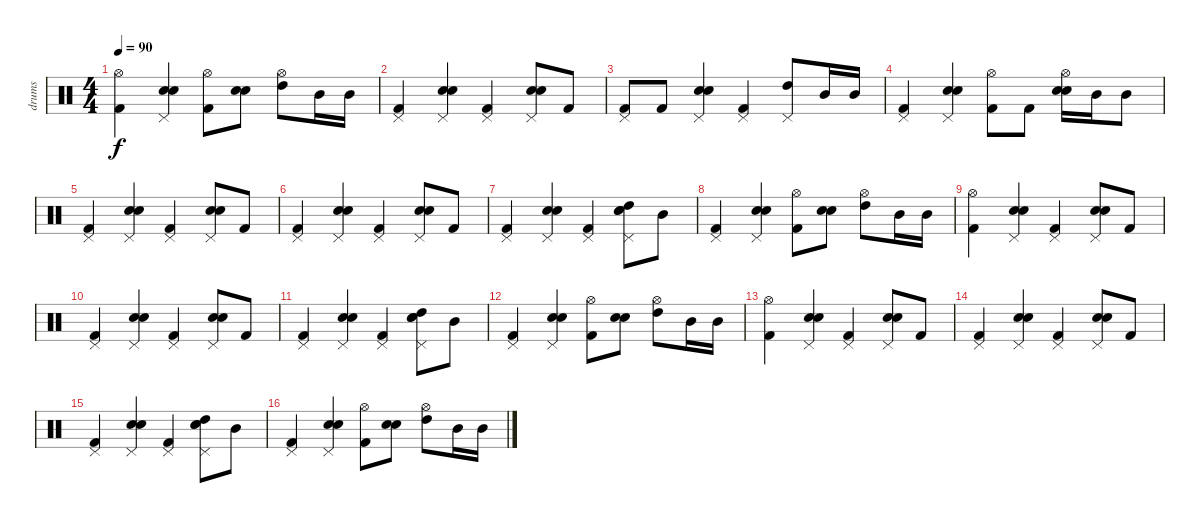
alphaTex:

\track ("drums" "drums") {instrument percussion}
\staff {score}
\articulation defaults
\ts (4 4)
\tempo 90
\clef neutral
\ks c
("Hi-Hat (open)" "Kick (hit) 2").4{dy f} ("Snare (hit) 2" "Electric Snare (hit)" "Pedal Hi-Hat (hit)").4 ("Hi-Hat (open)" "Kick (hit) 2").8 ("Snare (hit) 2" "Electric Snare (hit)").8 ("Hi-Hat (open)" "High Tom (hit)").8 "Mid Tom (hit)".16 "Mid Tom (hit)".16 |
("Kick (hit) 2" "Pedal Hi-Hat (hit)").4 ("Snare (hit) 2" "Electric Snare (hit)" "Pedal Hi-Hat (hit)").4 ("Kick (hit) 2" "Pedal Hi-Hat (hit)").4 ("Snare (hit) 2" "Electric Snare (hit)" "Pedal Hi-Hat (hit)").8 "Kick (hit) 2".8 |
("Kick (hit) 2" "Pedal Hi-Hat (hit)").8 "Kick (hit) 2".8 ("Snare (hit) 2" "Electric Snare (hit)" "Pedal Hi-Hat (hit)").4 ("Kick (hit) 2" "Pedal Hi-Hat (hit)").4 ("High Tom (hit)" "Pedal Hi-Hat (hit)").8 "Mid Tom (hit)".16 "Mid Tom (hit)".16 |
("Kick (hit) 2" "Pedal Hi-Hat (hit)").4 ("Snare (hit) 2" "Electric Snare (hit)" "Pedal Hi-Hat (hit)").4 ("Hi-Hat (open)" "Kick (hit) 2").8 "Kick (hit) 2".8 ("Hi-Hat (open)" "Snare (hit) 2" "Electric Snare (hit)").16 "Mid Tom (hit)".16 "Mid Tom (hit)".8 |
("Kick (hit) 2" "Pedal Hi-Hat (hit)").4 ("Snare (hit) 2" "Electric Snare (hit)" "Pedal Hi-Hat (hit)").4 ("Kick (hit) 2" "Pedal Hi-Hat (hit)").4 ("Snare (hit) 2" "Electric Snare (hit)" "Pedal Hi-Hat (hit)").8 "Kick (hit) 2".8 |
("Kick (hit) 2" "Pedal Hi-Hat (hit)").4 ("Snare (hit) 2" "Electric Snare (hit)" "Pedal Hi-Hat (hit)").4 ("Kick (hit) 2" "Pedal Hi-Hat (hit)").4 ("Snare (hit) 2" "Electric Snare (hit)" "Pedal Hi-Hat (hit)").8 "Kick (hit) 2".8 |
("Kick (hit) 2" "Pedal Hi-Hat (hit)").4 ("Snare (hit) 2" "Electric Snare (hit)" "Pedal Hi-Hat (hit)").4 ("Kick (hit) 2" "Pedal Hi-Hat (hit)").4 ("Snare (hit) 2" "Electric Snare (hit)" "High Tom (hit)" "Pedal Hi-Hat (hit)").8 "Mid Tom (hit)".8 |
("Kick (hit) 2" "Pedal Hi-Hat (hit)").4 ("Snare (hit) 2" "Electric Snare (hit)" "Pedal Hi-Hat (hit)").4 ("Hi-Hat (open)" "Kick (hit) 2").8 ("Snare (hit) 2" "Electric Snare (hit)").8 ("Hi-Hat (open)" "High Tom (hit)").8 "Mid Tom (hit)".16 "Mid Tom (hit)".16 |
("Hi-Hat (open)" "Kick (hit) 2").4 ("Snare (hit) 2" "Electric Snare (hit)" "Pedal Hi-Hat (hit)").4 ("Kick (hit) 2" "Pedal Hi-Hat (hit)").4 ("Snare (hit) 2" "Electric Snare (hit)" "Pedal Hi-Hat (hit)").8 "Kick (hit) 2".8 |
("Kick (hit) 2" "Pedal Hi-Hat (hit)").4 ("Snare (hit) 2" "Electric Snare (hit)" "Pedal Hi-Hat (hit)").4 ("Kick (hit) 2" "Pedal Hi-Hat (hit)").4 ("Snare (hit) 2" "Electric Snare (hit)" "Pedal Hi-Hat (hit)").8 "Kick (hit) 2".8 |
("Kick (hit) 2" "Pedal Hi-Hat (hit)").4 ("Snare (hit) 2" "Electric Snare (hit)" "Pedal Hi-Hat (hit)").4 ("Kick (hit) 2" "Pedal Hi-Hat (hit)").4 ("Snare (hit) 2" "Electric Snare (hit)" "High Tom (hit)" "Pedal Hi-Hat (hit)").8 "Mid Tom (hit)".8 |
("Kick (hit) 2" "Pedal Hi-Hat (hit)").4 ("Snare (hit) 2" "Electric Snare (hit)" "Pedal Hi-Hat (hit)").4 ("Hi-Hat (open)" "Kick (hit) 2").8 ("Snare (hit) 2" "Electric Snare (hit)").8 ("Hi-Hat (open)" "High Tom (hit)").8 "Mid Tom (hit)".16 "Mid Tom (hit)".16 |
("Hi-Hat (open)" "Kick (hit) 2").4 ("Snare (hit) 2" "Electric Snare (hit)" "Pedal Hi-Hat (hit)").4 ("Kick (hit) 2" "Pedal Hi-Hat (hit)").4 ("Snare (hit) 2" "Electric Snare (hit)" "Pedal Hi-Hat (hit)").8 "Kick (hit) 2".8 |
("Kick (hit) 2" "Pedal Hi-Hat (hit)").4 ("Snare (hit) 2" "Electric Snare (hit)" "Pedal Hi-Hat (hit)").4 ("Kick (hit) 2" "Pedal Hi-Hat (hit)").4 ("Snare (hit) 2" "Electric Snare (hit)" "Pedal Hi-Hat (hit)").8 "Kick (hit) 2".8 |
("Kick (hit) 2" "Pedal Hi-Hat (hit)").4 ("Snare (hit) 2" "Electric Snare (hit)" "Pedal Hi-Hat (hit)").4 ("Kick (hit) 2" "Pedal Hi-Hat (hit)").4 ("Snare (hit) 2" "Electric Snare (hit)" "High Tom (hit)" "Pedal Hi-Hat (hit)").8 "Mid Tom (hit)".8 |
("Kick (hit) 2" "Pedal Hi-Hat (hit)").4 ("Snare (hit) 2" "Electric Snare (hit)" "Pedal Hi-Hat (hit)").4 ("Hi-Hat (open)" "Kick (hit) 2").8 ("Snare (hit) 2" "Electric Snare (hit)").8 ("Hi-Hat (open)" "High Tom (hit)").8 "Mid Tom (hit)".16 "Mid Tom (hit)".16
